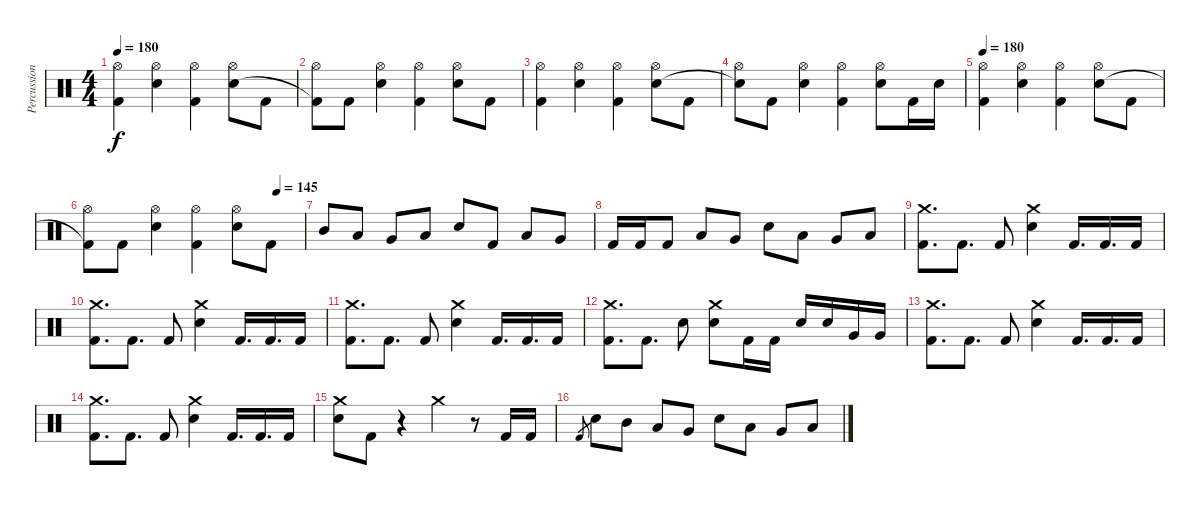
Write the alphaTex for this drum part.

\track ("Percussions" "Percussion") {instrument percussion}
\staff {score}
\articulation defaults
\ts (4 4)
\tempo 180
\clef neutral
\ks c
("Hi-Hat (open)" "Kick (hit) 2").4{dy f} ("Hi-Hat (open)" "Electric Snare (hit)").4 ("Hi-Hat (open)" "Kick (hit) 2").4 ("Hi-Hat (open)" "Electric Snare (hit)").8 "Kick (hit) 2".8 |
("Hi-Hat (open)" "Kick (hit) 2"{t}).8 "Kick (hit) 2".8 ("Hi-Hat (open)" "Electric Snare (hit)").4 ("Hi-Hat (open)" "Kick (hit) 2").4 ("Hi-Hat (open)" "Electric Snare (hit)").8 "Kick (hit) 2".8 |
("Hi-Hat (open)" "Kick (hit) 2").4 ("Hi-Hat (open)" "Electric Snare (hit)").4 ("Hi-Hat (open)" "Kick (hit) 2").4 ("Hi-Hat (open)" "Electric Snare (hit)").8 "Kick (hit) 2".8 |
("Hi-Hat (open)" "Snare (hit)"{t}).8 "Kick (hit) 2".8 ("Hi-Hat (open)" "Electric Snare (hit)").4 ("Hi-Hat (open)" "Kick (hit) 2").4 ("Hi-Hat (open)" "Electric Snare (hit)").8 "Kick (hit) 2".16 "Electric Snare (hit)".16 |
\tempo 180
("Hi-Hat (open)" "Kick (hit) 2").4 ("Hi-Hat (open)" "Electric Snare (hit)").4 ("Hi-Hat (open)" "Kick (hit) 2").4 ("Hi-Hat (open)" "Electric Snare (hit)").8 "Kick (hit) 2".8 |
\tempo (145 0.875)
("Hi-Hat (open)" "Kick (hit) 2"{t}).8 "Kick (hit) 2".8 ("Hi-Hat (open)" "Electric Snare (hit)").4 ("Hi-Hat (open)" "Kick (hit) 2").4 ("Hi-Hat (open)" "Electric Snare (hit)").8 "Kick (hit) 2".8 |
"Mid Tom (hit)".8 "Low Tom (hit)".8 "Very Low Tom (hit)".8 "Low Floor Tom (hit)".8 "Electric Snare (hit)".8 "Kick (hit) 2".8 "Low Tom (hit)".8 "Very Low Tom (hit)".8 |
"Kick (hit) 2".16 "Kick (hit) 2".16 "Kick (hit) 2".8 "Low Tom (hit)".8 "Very Low Tom (hit)".8 "Electric Snare (hit)".8 "Low Tom (hit)".8 "Very Low Tom (hit)".8 "Low Floor Tom (hit)".8 |
("Crash medium (hit)" "Kick (hit) 2").8{d} "Kick (hit) 2".8{d} "Kick (hit) 2".8 ("Crash medium (hit)" "Electric Snare (hit)").4 "Kick (hit) 2".16{d} "Kick (hit) 2".16{d} "Kick (hit) 2".16 |
("Crash medium (hit)" "Kick (hit) 2").8{d} "Kick (hit) 2".8{d} "Kick (hit) 2".8 ("Crash medium (hit)" "Electric Snare (hit)").4 "Kick (hit) 2".16{d} "Kick (hit) 2".16{d} "Kick (hit) 2".16 |
("Crash medium (hit)" "Kick (hit) 2").8{d} "Kick (hit) 2".8{d} "Kick (hit) 2".8 ("Crash medium (hit)" "Electric Snare (hit)").4 "Kick (hit) 2".16{d} "Kick (hit) 2".16{d} "Kick (hit) 2".16 |
("Crash medium (hit)" "Kick (hit) 2").8{d} "Kick (hit) 2".8{d} "Electric Snare (hit)".8 ("Crash medium (hit)" "Electric Snare (hit)").8 "Kick (hit) 2".16 "Kick (hit) 2".16 "Electric Snare (hit)".16 "Electric Snare (hit)".16 "Very Low Tom (hit)".16 "Very Low Tom (hit)".16 |
("Crash medium (hit)" "Kick (hit) 2").8{d} "Kick (hit) 2".8{d} "Kick (hit) 2".8 ("Crash medium (hit)" "Electric Snare (hit)").4 "Kick (hit) 2".16{d} "Kick (hit) 2".16{d} "Kick (hit) 2".16 |
("Crash medium (hit)" "Kick (hit) 2").8{d} "Kick (hit) 2".8{d} "Kick (hit) 2".8 ("Crash medium (hit)" "Electric Snare (hit)").4 "Kick (hit) 2".16{d} "Kick (hit) 2".16{d} "Kick (hit) 2".16 |
("Crash medium (hit)" "Electric Snare (hit)").8 "Kick (hit) 2".8 r.4 "Crash medium (hit)".4 r.8 "Kick (hit) 2".16 "Kick (hit) 2".16 |
"Kick (hit) 2".8{gr} "Electric Snare (hit)".8 "Mid Tom (hit)".8 "Low Tom (hit)".8 "Very Low Tom (hit)".8 "Electric Snare (hit)".8 "Low Tom (hit)".8 "Very Low Tom (hit)".8 "Low Floor Tom (hit)".8
